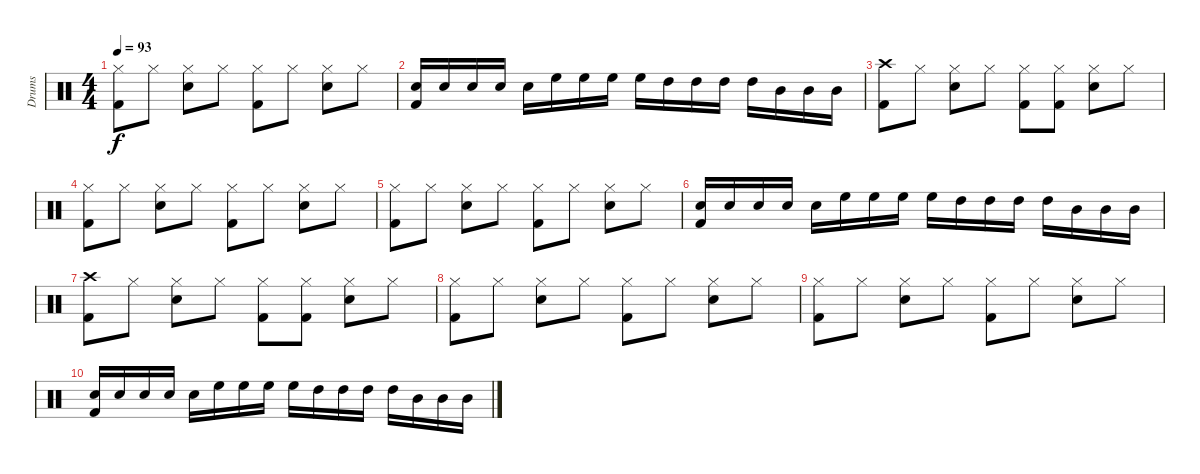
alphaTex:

\track ("Drums" "Drums") {instrument percussion}
\staff {score}
\articulation defaults
\ts (4 4)
\tempo 93
\clef neutral
\ks c
("Hi-Hat (closed)" "Kick (hit) 2").8{dy f} "Hi-Hat (closed)".8 ("Hi-Hat (closed)" "Snare (hit) 2").8 "Hi-Hat (closed)".8 ("Hi-Hat (closed)" "Kick (hit) 2").8 "Hi-Hat (closed)".8 ("Hi-Hat (closed)" "Snare (hit) 2").8 "Hi-Hat (closed)".8 |
("Snare (hit) 2" "Kick (hit) 2").16 "Snare (hit) 2".16 "Snare (hit) 2".16 "Snare (hit) 2".16 "Snare (hit) 2".16 "High Floor Tom (hit)".16 "High Floor Tom (hit)".16 "High Floor Tom (hit)".16 "High Floor Tom (hit)".16 "High Tom (hit)".16 "High Tom (hit)".16 "High Tom (hit)".16 "High Tom (hit)".16 "Mid Tom (hit)".16 "Mid Tom (hit)".16 "Mid Tom (hit)".16 |
("Crash high (hit)" "Kick (hit) 2").8 "Hi-Hat (closed)".8 ("Hi-Hat (closed)" "Snare (hit) 2").8 "Hi-Hat (closed)".8 ("Hi-Hat (closed)" "Kick (hit) 2").8 ("Hi-Hat (closed)" "Kick (hit) 2").8 ("Hi-Hat (closed)" "Snare (hit) 2").8 "Hi-Hat (closed)".8 |
("Hi-Hat (closed)" "Kick (hit) 2").8 "Hi-Hat (closed)".8 ("Hi-Hat (closed)" "Snare (hit) 2").8 "Hi-Hat (closed)".8 ("Hi-Hat (closed)" "Kick (hit) 2").8 "Hi-Hat (closed)".8 ("Hi-Hat (closed)" "Snare (hit) 2").8 "Hi-Hat (closed)".8 |
("Hi-Hat (closed)" "Kick (hit) 2").8 "Hi-Hat (closed)".8 ("Hi-Hat (closed)" "Snare (hit) 2").8 "Hi-Hat (closed)".8 ("Hi-Hat (closed)" "Kick (hit) 2").8 "Hi-Hat (closed)".8 ("Hi-Hat (closed)" "Snare (hit) 2").8 "Hi-Hat (closed)".8 |
("Snare (hit) 2" "Kick (hit) 2").16 "Snare (hit) 2".16 "Snare (hit) 2".16 "Snare (hit) 2".16 "Snare (hit) 2".16 "High Floor Tom (hit)".16 "High Floor Tom (hit)".16 "High Floor Tom (hit)".16 "High Floor Tom (hit)".16 "High Tom (hit)".16 "High Tom (hit)".16 "High Tom (hit)".16 "High Tom (hit)".16 "Mid Tom (hit)".16 "Mid Tom (hit)".16 "Mid Tom (hit)".16 |
("Crash high (hit)" "Kick (hit) 2").8 "Hi-Hat (closed)".8 ("Hi-Hat (closed)" "Snare (hit) 2").8 "Hi-Hat (closed)".8 ("Hi-Hat (closed)" "Kick (hit) 2").8 ("Hi-Hat (closed)" "Kick (hit) 2").8 ("Hi-Hat (closed)" "Snare (hit) 2").8 "Hi-Hat (closed)".8 |
("Hi-Hat (closed)" "Kick (hit) 2").8 "Hi-Hat (closed)".8 ("Hi-Hat (closed)" "Snare (hit) 2").8 "Hi-Hat (closed)".8 ("Hi-Hat (closed)" "Kick (hit) 2").8 "Hi-Hat (closed)".8 ("Hi-Hat (closed)" "Snare (hit) 2").8 "Hi-Hat (closed)".8 |
("Hi-Hat (closed)" "Kick (hit) 2").8 "Hi-Hat (closed)".8 ("Hi-Hat (closed)" "Snare (hit) 2").8 "Hi-Hat (closed)".8 ("Hi-Hat (closed)" "Kick (hit) 2").8 "Hi-Hat (closed)".8 ("Hi-Hat (closed)" "Snare (hit) 2").8 "Hi-Hat (closed)".8 |
("Snare (hit) 2" "Kick (hit) 2").16 "Snare (hit) 2".16 "Snare (hit) 2".16 "Snare (hit) 2".16 "Snare (hit) 2".16 "High Floor Tom (hit)".16 "High Floor Tom (hit)".16 "High Floor Tom (hit)".16 "High Floor Tom (hit)".16 "High Tom (hit)".16 "High Tom (hit)".16 "High Tom (hit)".16 "High Tom (hit)".16 "Mid Tom (hit)".16 "Mid Tom (hit)".16 "Mid Tom (hit)".16
